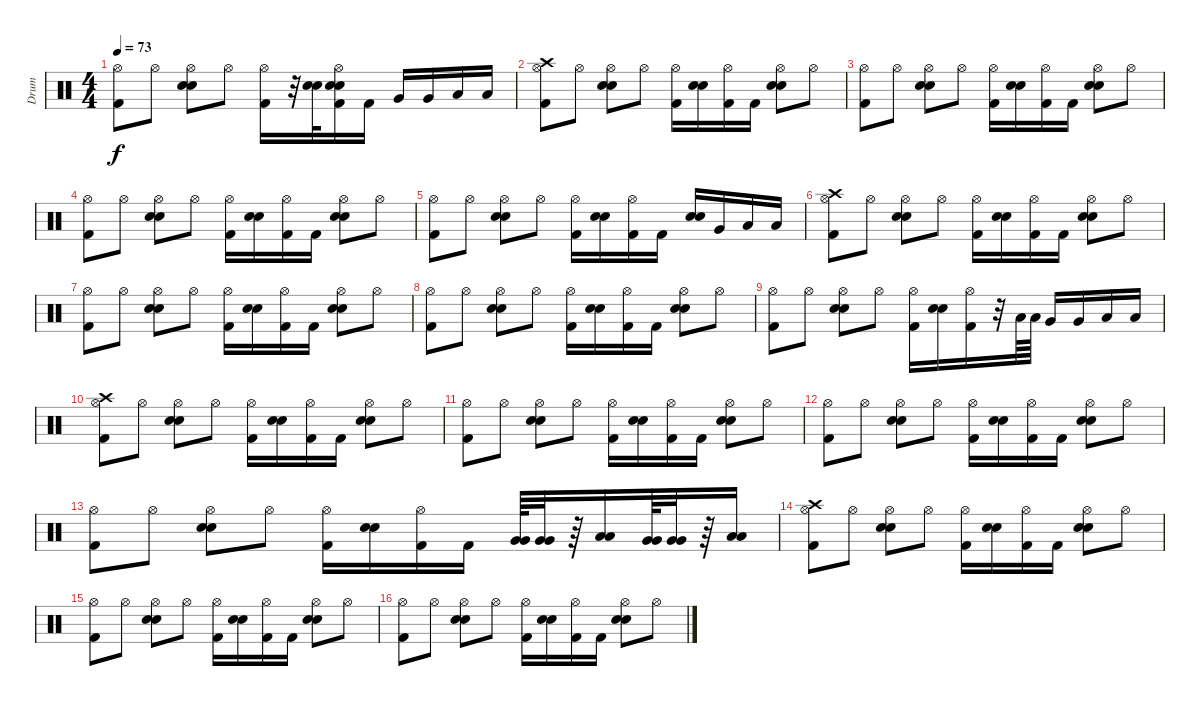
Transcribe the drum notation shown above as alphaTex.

\track ("Drum" "Drum") {instrument percussion}
\staff {score}
\articulation defaults
\ts (4 4)
\tempo 73
\clef neutral
\ks c
("Hi-Hat (open)" "Kick (hit) 2").8{dy f} "Hi-Hat (open)".8 ("Hi-Hat (open)" "Electric Snare (hit)" "Electric Snare (hit)").8 "Hi-Hat (open)".8 ("Hi-Hat (open)" "Kick (hit) 2").16 r.32 ("Electric Snare (hit)" "Electric Snare (hit)").32 ("Hi-Hat (open)" "Electric Snare (hit)" "Electric Snare (hit)" "Kick (hit) 2").16 "Kick (hit) 2".16 "Very Low Tom (hit)".16 "Very Low Tom (hit)".16 "Low Floor Tom (hit)".16 "Low Floor Tom (hit)".16 |
("Hi-Hat (open)" "Crash high (hit)" "Kick (hit) 2").8 "Hi-Hat (open)".8 ("Hi-Hat (open)" "Electric Snare (hit)" "Electric Snare (hit)").8 "Hi-Hat (open)".8 ("Hi-Hat (open)" "Kick (hit) 2").16 ("Electric Snare (hit)" "Electric Snare (hit)").16 ("Hi-Hat (open)" "Kick (hit) 2").16 "Kick (hit) 2".16 ("Hi-Hat (open)" "Electric Snare (hit)" "Electric Snare (hit)").8 "Hi-Hat (open)".8 |
("Hi-Hat (open)" "Kick (hit) 2").8 "Hi-Hat (open)".8 ("Hi-Hat (open)" "Electric Snare (hit)" "Electric Snare (hit)").8 "Hi-Hat (open)".8 ("Hi-Hat (open)" "Kick (hit) 2").16 ("Electric Snare (hit)" "Electric Snare (hit)").16 ("Hi-Hat (open)" "Kick (hit) 2").16 "Kick (hit) 2".16 ("Hi-Hat (open)" "Electric Snare (hit)" "Electric Snare (hit)").8 "Hi-Hat (open)".8 |
("Hi-Hat (open)" "Kick (hit) 2").8 "Hi-Hat (open)".8 ("Hi-Hat (open)" "Electric Snare (hit)" "Electric Snare (hit)").8 "Hi-Hat (open)".8 ("Hi-Hat (open)" "Kick (hit) 2").16 ("Electric Snare (hit)" "Electric Snare (hit)").16 ("Hi-Hat (open)" "Kick (hit) 2").16 "Kick (hit) 2".16 ("Hi-Hat (open)" "Electric Snare (hit)" "Electric Snare (hit)").8 "Hi-Hat (open)".8 |
("Hi-Hat (open)" "Kick (hit) 2").8 "Hi-Hat (open)".8 ("Hi-Hat (open)" "Electric Snare (hit)" "Electric Snare (hit)").8 "Hi-Hat (open)".8 ("Hi-Hat (open)" "Kick (hit) 2").16 ("Electric Snare (hit)" "Electric Snare (hit)").16 ("Hi-Hat (open)" "Kick (hit) 2").16 "Kick (hit) 2".16 ("Electric Snare (hit)" "Electric Snare (hit)").16 "Very Low Tom (hit)".16 "Low Floor Tom (hit)".16 "Low Floor Tom (hit)".16 |
("Hi-Hat (open)" "Crash high (hit)" "Kick (hit) 2").8 "Hi-Hat (open)".8 ("Hi-Hat (open)" "Electric Snare (hit)" "Electric Snare (hit)").8 "Hi-Hat (open)".8 ("Hi-Hat (open)" "Kick (hit) 2").16 ("Electric Snare (hit)" "Electric Snare (hit)").16 ("Hi-Hat (open)" "Kick (hit) 2").16 "Kick (hit) 2".16 ("Hi-Hat (open)" "Electric Snare (hit)" "Electric Snare (hit)").8 "Hi-Hat (open)".8 |
("Hi-Hat (open)" "Kick (hit) 2").8 "Hi-Hat (open)".8 ("Hi-Hat (open)" "Electric Snare (hit)" "Electric Snare (hit)").8 "Hi-Hat (open)".8 ("Hi-Hat (open)" "Kick (hit) 2").16 ("Electric Snare (hit)" "Electric Snare (hit)").16 ("Hi-Hat (open)" "Kick (hit) 2").16 "Kick (hit) 2".16 ("Hi-Hat (open)" "Electric Snare (hit)" "Electric Snare (hit)").8 "Hi-Hat (open)".8 |
("Hi-Hat (open)" "Kick (hit) 2").8 "Hi-Hat (open)".8 ("Hi-Hat (open)" "Electric Snare (hit)" "Electric Snare (hit)").8 "Hi-Hat (open)".8 ("Hi-Hat (open)" "Kick (hit) 2").16 ("Electric Snare (hit)" "Electric Snare (hit)").16 ("Hi-Hat (open)" "Kick (hit) 2").16 "Kick (hit) 2".16 ("Hi-Hat (open)" "Electric Snare (hit)" "Electric Snare (hit)").8 "Hi-Hat (open)".8 |
("Hi-Hat (open)" "Kick (hit) 2").8 "Hi-Hat (open)".8 ("Hi-Hat (open)" "Electric Snare (hit)" "Electric Snare (hit)").8 "Hi-Hat (open)".8 ("Hi-Hat (open)" "Kick (hit) 2").16 ("Electric Snare (hit)" "Electric Snare (hit)").16 ("Hi-Hat (open)" "Kick (hit) 2").16 r.32 "Low Tom (hit)".64 "Low Tom (hit)".64 "Very Low Tom (hit)".16 "Very Low Tom (hit)".16 "Low Floor Tom (hit)".16 "Low Floor Tom (hit)".16 |
("Hi-Hat (open)" "Crash high (hit)" "Kick (hit) 2").8 "Hi-Hat (open)".8 ("Hi-Hat (open)" "Electric Snare (hit)" "Electric Snare (hit)").8 "Hi-Hat (open)".8 ("Hi-Hat (open)" "Kick (hit) 2").16 ("Electric Snare (hit)" "Electric Snare (hit)").16 ("Hi-Hat (open)" "Kick (hit) 2").16 "Kick (hit) 2".16 ("Hi-Hat (open)" "Electric Snare (hit)" "Electric Snare (hit)").8 "Hi-Hat (open)".8 |
("Hi-Hat (open)" "Kick (hit) 2").8 "Hi-Hat (open)".8 ("Hi-Hat (open)" "Electric Snare (hit)" "Electric Snare (hit)").8 "Hi-Hat (open)".8 ("Hi-Hat (open)" "Kick (hit) 2").16 ("Electric Snare (hit)" "Electric Snare (hit)").16 ("Hi-Hat (open)" "Kick (hit) 2").16 "Kick (hit) 2".16 ("Hi-Hat (open)" "Electric Snare (hit)" "Electric Snare (hit)").8 "Hi-Hat (open)".8 |
("Hi-Hat (open)" "Kick (hit) 2").8 "Hi-Hat (open)".8 ("Hi-Hat (open)" "Electric Snare (hit)" "Electric Snare (hit)").8 "Hi-Hat (open)".8 ("Hi-Hat (open)" "Kick (hit) 2").16 ("Electric Snare (hit)" "Electric Snare (hit)").16 ("Hi-Hat (open)" "Kick (hit) 2").16 "Kick (hit) 2".16 ("Hi-Hat (open)" "Electric Snare (hit)" "Electric Snare (hit)").8 "Hi-Hat (open)".8 |
("Hi-Hat (open)" "Kick (hit) 2").8 "Hi-Hat (open)".8 ("Hi-Hat (open)" "Electric Snare (hit)" "Electric Snare (hit)").8 "Hi-Hat (open)".8 ("Hi-Hat (open)" "Kick (hit) 2").16 ("Electric Snare (hit)" "Electric Snare (hit)").16 ("Hi-Hat (open)" "Kick (hit) 2").16 "Kick (hit) 2".16 ("Very Low Tom (hit)" "Very Low Tom (hit)").64 ("Very Low Tom (hit)" "Very Low Tom (hit)").32 r.64 ("Low Floor Tom (hit)" "Low Floor Tom (hit)").16 ("Very Low Tom (hit)" "Very Low Tom (hit)").64 ("Very Low Tom (hit)" "Very Low Tom (hit)").32 r.64 ("Low Floor Tom (hit)" "Low Floor Tom (hit)").16 |
("Hi-Hat (open)" "Crash high (hit)" "Kick (hit) 2").8 "Hi-Hat (open)".8 ("Hi-Hat (open)" "Electric Snare (hit)" "Electric Snare (hit)").8 "Hi-Hat (open)".8 ("Hi-Hat (open)" "Kick (hit) 2").16 ("Electric Snare (hit)" "Electric Snare (hit)").16 ("Hi-Hat (open)" "Kick (hit) 2").16 "Kick (hit) 2".16 ("Hi-Hat (open)" "Electric Snare (hit)" "Electric Snare (hit)").8 "Hi-Hat (open)".8 |
("Hi-Hat (open)" "Kick (hit) 2").8 "Hi-Hat (open)".8 ("Hi-Hat (open)" "Electric Snare (hit)" "Electric Snare (hit)").8 "Hi-Hat (open)".8 ("Hi-Hat (open)" "Kick (hit) 2").16 ("Electric Snare (hit)" "Electric Snare (hit)").16 ("Hi-Hat (open)" "Kick (hit) 2").16 "Kick (hit) 2".16 ("Hi-Hat (open)" "Electric Snare (hit)" "Electric Snare (hit)").8 "Hi-Hat (open)".8 |
("Hi-Hat (open)" "Kick (hit) 2").8 "Hi-Hat (open)".8 ("Hi-Hat (open)" "Electric Snare (hit)" "Electric Snare (hit)").8 "Hi-Hat (open)".8 ("Hi-Hat (open)" "Kick (hit) 2").16 ("Electric Snare (hit)" "Electric Snare (hit)").16 ("Hi-Hat (open)" "Kick (hit) 2").16 "Kick (hit) 2".16 ("Hi-Hat (open)" "Electric Snare (hit)" "Electric Snare (hit)").8 "Hi-Hat (open)".8
